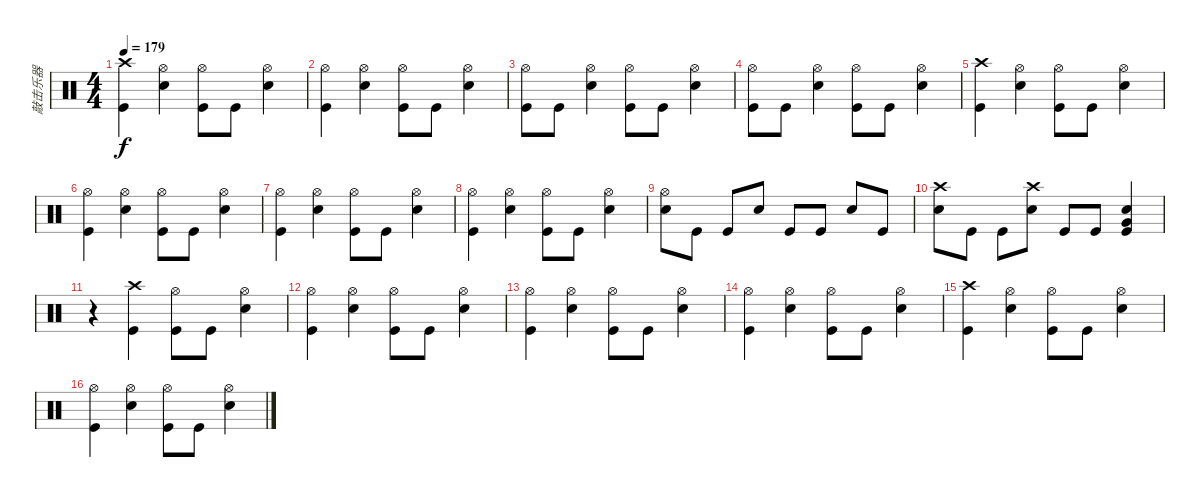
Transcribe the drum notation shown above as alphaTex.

\track ("敲击乐器" "敲击乐器") {instrument percussion}
\staff {score}
\articulation defaults
\ts (4 4)
\tempo 179
\clef neutral
\ks c
("Crash high (hit)" "Kick (hit)").4{dy f} ("Hi-Hat (open)" "Electric Snare (hit)").4 ("Hi-Hat (open)" "Kick (hit)").8 "Kick (hit)".8 ("Hi-Hat (open)" "Electric Snare (hit)").4 |
("Hi-Hat (open)" "Kick (hit)").4 ("Hi-Hat (open)" "Electric Snare (hit)").4 ("Hi-Hat (open)" "Kick (hit)").8 "Kick (hit)".8 ("Hi-Hat (open)" "Electric Snare (hit)").4 |
("Hi-Hat (open)" "Kick (hit)").8 "Kick (hit)".8 ("Hi-Hat (open)" "Electric Snare (hit)").4 ("Hi-Hat (open)" "Kick (hit)").8 "Kick (hit)".8 ("Hi-Hat (open)" "Electric Snare (hit)").4 |
("Hi-Hat (open)" "Kick (hit)").8 "Kick (hit)".8 ("Hi-Hat (open)" "Electric Snare (hit)").4 ("Hi-Hat (open)" "Kick (hit)").8 "Kick (hit)".8 ("Hi-Hat (open)" "Electric Snare (hit)").4 |
("Crash high (hit)" "Kick (hit)").4 ("Hi-Hat (open)" "Electric Snare (hit)").4 ("Hi-Hat (open)" "Kick (hit)").8 "Kick (hit)".8 ("Hi-Hat (open)" "Electric Snare (hit)").4 |
("Hi-Hat (open)" "Kick (hit)").4 ("Hi-Hat (open)" "Electric Snare (hit)").4 ("Hi-Hat (open)" "Kick (hit)").8 "Kick (hit)".8 ("Hi-Hat (open)" "Electric Snare (hit)").4 |
("Hi-Hat (open)" "Kick (hit)").4 ("Hi-Hat (open)" "Electric Snare (hit)").4 ("Hi-Hat (open)" "Kick (hit)").8 "Kick (hit)".8 ("Hi-Hat (open)" "Electric Snare (hit)").4 |
("Hi-Hat (open)" "Kick (hit)").4 ("Hi-Hat (open)" "Electric Snare (hit)").4 ("Hi-Hat (open)" "Kick (hit)").8 "Kick (hit)".8 ("Hi-Hat (open)" "Electric Snare (hit)").4 |
("Hi-Hat (open)" "Electric Snare (hit)").8 "Kick (hit)".8 "Kick (hit)".8 "Electric Snare (hit)".8 "Kick (hit)".8 "Kick (hit)".8 "Electric Snare (hit)".8 "Kick (hit)".8 |
("Crash high (hit)" "Electric Snare (hit)").8 "Kick (hit)".8 "Kick (hit)".8 ("Crash high (hit)" "Electric Snare (hit)").8 "Kick (hit)".8 "Kick (hit)".8 ("Electric Snare (hit)" "Very Low Tom (hit)" "Kick (hit)").4 |
r.4 ("Crash high (hit)" "Kick (hit)").4 ("Hi-Hat (open)" "Kick (hit)").8 "Kick (hit)".8 ("Hi-Hat (open)" "Electric Snare (hit)").4 |
("Hi-Hat (open)" "Kick (hit)").4 ("Hi-Hat (open)" "Electric Snare (hit)").4 ("Hi-Hat (open)" "Kick (hit)").8 "Kick (hit)".8 ("Hi-Hat (open)" "Electric Snare (hit)").4 |
("Hi-Hat (open)" "Kick (hit)").4 ("Hi-Hat (open)" "Electric Snare (hit)").4 ("Hi-Hat (open)" "Kick (hit)").8 "Kick (hit)".8 ("Hi-Hat (open)" "Electric Snare (hit)").4 |
("Hi-Hat (open)" "Kick (hit)").4 ("Hi-Hat (open)" "Electric Snare (hit)").4 ("Hi-Hat (open)" "Kick (hit)").8 "Kick (hit)".8 ("Hi-Hat (open)" "Electric Snare (hit)").4 |
("Crash high (hit)" "Kick (hit)").4 ("Hi-Hat (open)" "Electric Snare (hit)").4 ("Hi-Hat (open)" "Kick (hit)").8 "Kick (hit)".8 ("Hi-Hat (open)" "Electric Snare (hit)").4 |
("Hi-Hat (open)" "Kick (hit)").4 ("Hi-Hat (open)" "Electric Snare (hit)").4 ("Hi-Hat (open)" "Kick (hit)").8 "Kick (hit)".8 ("Hi-Hat (open)" "Electric Snare (hit)").4
